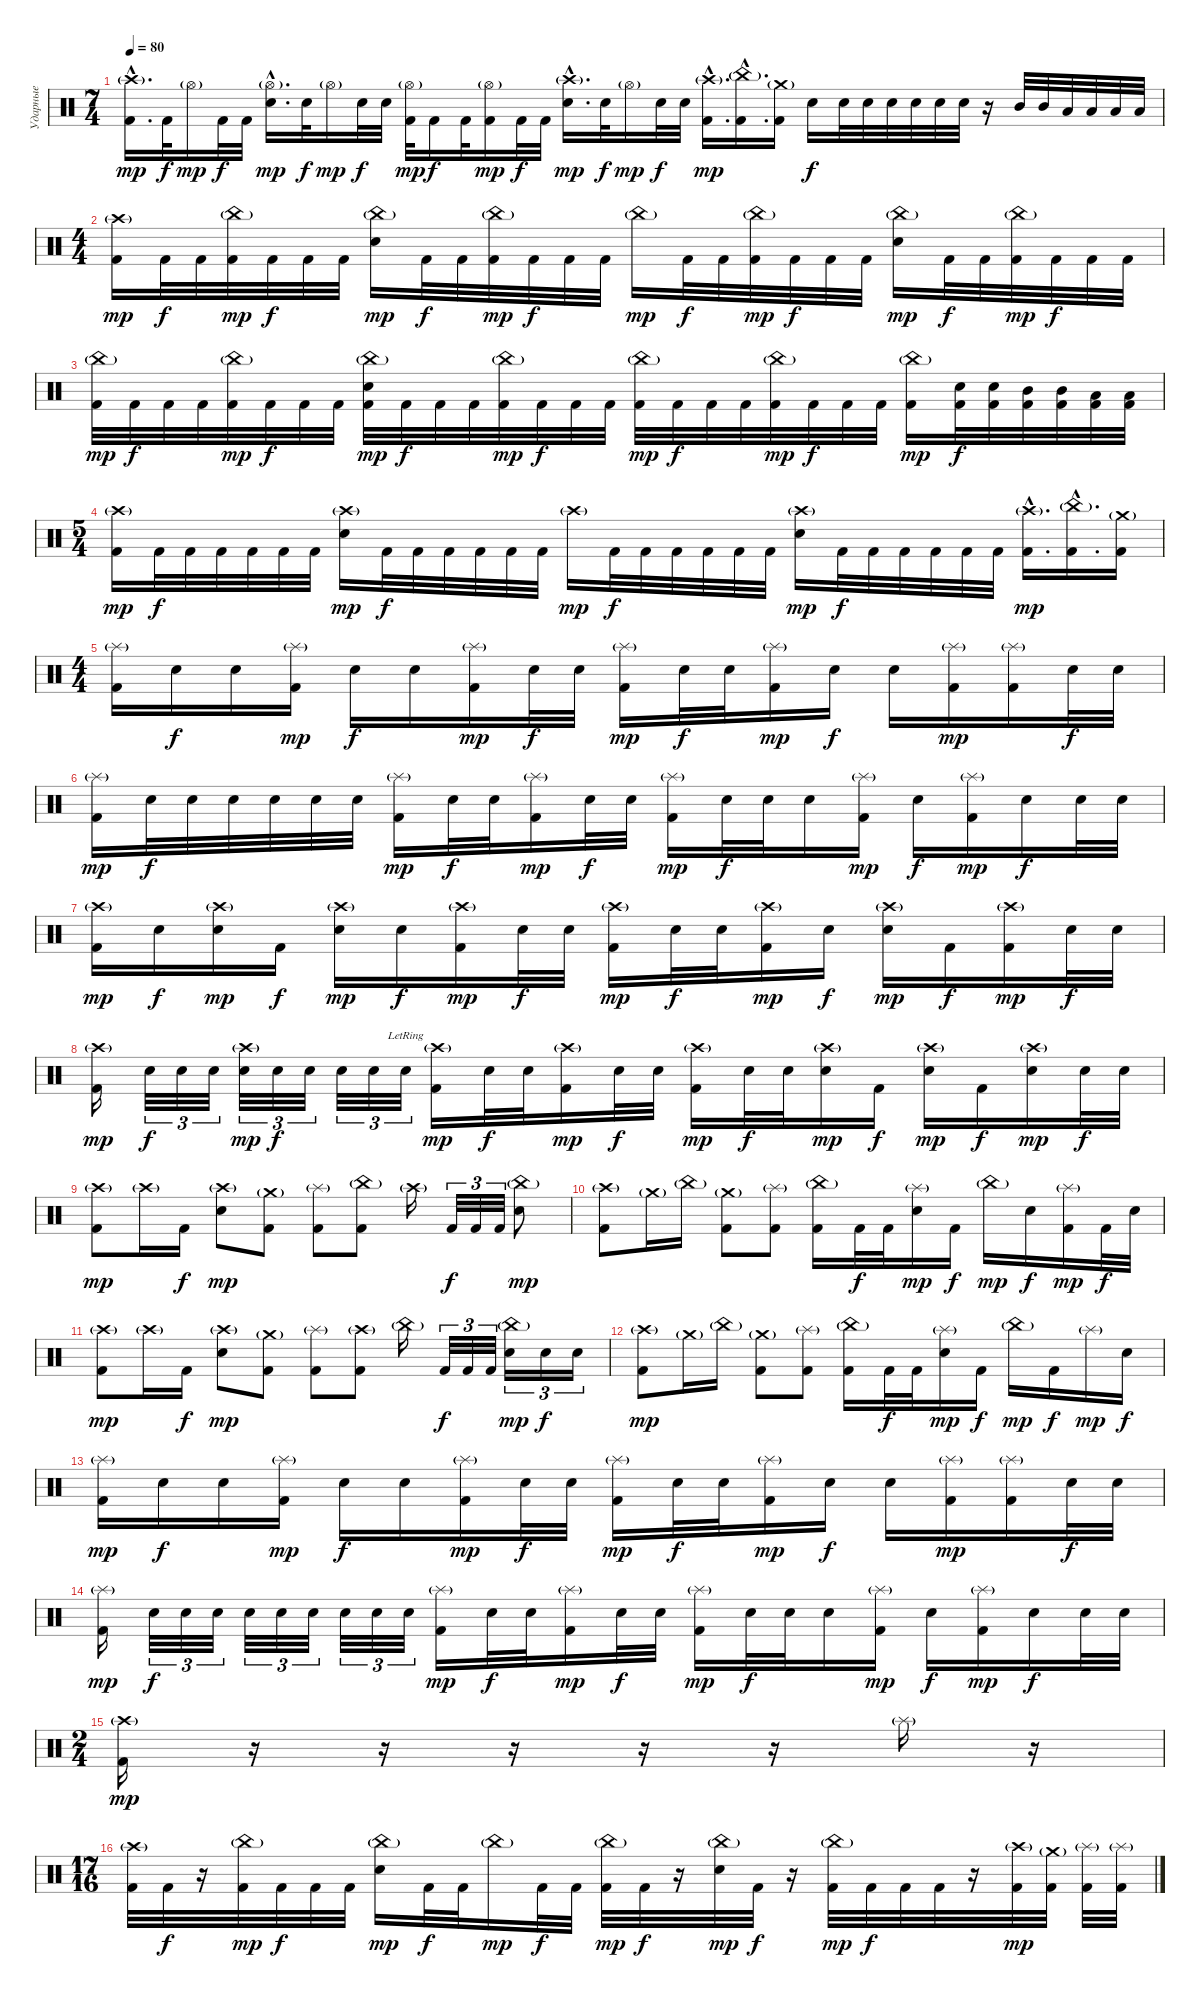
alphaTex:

\track ("Ударные" "Ударные") {instrument percussion}
\staff {score}
\articulation defaults
\ts (7 4)
\tempo 80
\clef neutral
\ks c
("Crash high (hit)"{g hac} "Kick (hit) 2"{hac}).16{d dy mp} "Kick (hit) 2".32{dy f} "Hi-Hat (open)"{g}.16{dy mp} "Kick (hit) 2".32{dy f} "Kick (hit) 2".32 ("Hi-Hat (open)"{g hac} "Electric Snare (hit)"{hac}).16{d dy mp} "Electric Snare (hit)".32{dy f} "Hi-Hat (open)"{g}.16{dy mp} "Electric Snare (hit)".32{dy f} "Electric Snare (hit)".32 ("Hi-Hat (open)"{g} "Kick (hit) 2").32{dy mp} "Kick (hit) 2".16{dy f} "Kick (hit) 2".32 ("Hi-Hat (open)"{g} "Kick (hit) 2").16{dy mp} "Kick (hit) 2".32{dy f} "Kick (hit) 2".32 ("Crash high (hit)"{g hac} "Electric Snare (hit)"{hac}).16{d dy mp} "Electric Snare (hit)".32{dy f} "Hi-Hat (open)"{g}.16{dy mp} "Electric Snare (hit)".32{dy f} "Electric Snare (hit)".32 ("Crash high (hit)"{g hac} "Kick (hit) 2"{hac}).16{d dy mp} ("China (hit)"{g hac} "Kick (hit) 2"{hac}).16{d} ("Crash medium (hit)"{g} "Kick (hit) 2").16 "Electric Snare (hit)".16{dy f} "Electric Snare (hit)".32 "Electric Snare (hit)".32 "Electric Snare (hit)".32 "Electric Snare (hit)".32 "Electric Snare (hit)".32 "Electric Snare (hit)".32 r.16 "Mid Tom (hit)".32 "Mid Tom (hit)".32 "Low Tom (hit)".32 "Low Tom (hit)".32 "Low Tom (hit)".32 "Low Tom (hit)".32 |
\ts (4 4)
("Crash high (hit)"{g} "Kick (hit) 2").16{dy mp} "Kick (hit) 2".32{dy f} "Kick (hit) 2".32 ("China (hit)"{g} "Kick (hit) 2").32{dy mp} "Kick (hit) 2".32{dy f} "Kick (hit) 2".32 "Kick (hit) 2".32 ("China (hit)"{g} "Electric Snare (hit)").16{dy mp} "Kick (hit) 2".32{dy f} "Kick (hit) 2".32 ("China (hit)"{g} "Kick (hit) 2").32{dy mp} "Kick (hit) 2".32{dy f} "Kick (hit) 2".32 "Kick (hit) 2".32 "China (hit)"{g}.16{dy mp} "Kick (hit) 2".32{dy f} "Kick (hit) 2".32 ("China (hit)"{g} "Kick (hit) 2").32{dy mp} "Kick (hit) 2".32{dy f} "Kick (hit) 2".32 "Kick (hit) 2".32 ("China (hit)"{g} "Electric Snare (hit)").16{dy mp} "Kick (hit) 2".32{dy f} "Kick (hit) 2".32 ("China (hit)"{g} "Kick (hit) 2").32{dy mp} "Kick (hit) 2".32{dy f} "Kick (hit) 2".32 "Kick (hit) 2".32 |
("China (hit)"{g} "Kick (hit) 2").32{dy mp} "Kick (hit) 2".32{dy f} "Kick (hit) 2".32 "Kick (hit) 2".32 ("China (hit)"{g} "Kick (hit) 2").32{dy mp} "Kick (hit) 2".32{dy f} "Kick (hit) 2".32 "Kick (hit) 2".32 ("China (hit)"{g} "Electric Snare (hit)" "Kick (hit) 2").32{dy mp} "Kick (hit) 2".32{dy f} "Kick (hit) 2".32 "Kick (hit) 2".32 ("China (hit)"{g} "Kick (hit) 2").32{dy mp} "Kick (hit) 2".32{dy f} "Kick (hit) 2".32 "Kick (hit) 2".32 ("China (hit)"{g} "Kick (hit) 2").32{dy mp} "Kick (hit) 2".32{dy f} "Kick (hit) 2".32 "Kick (hit) 2".32 ("China (hit)"{g} "Kick (hit) 2").32{dy mp} "Kick (hit) 2".32{dy f} "Kick (hit) 2".32 "Kick (hit) 2".32 ("China (hit)"{g} "Kick (hit) 2").16{dy mp} ("Electric Snare (hit)" "Kick (hit) 2").32{dy f} ("Electric Snare (hit)" "Kick (hit) 2").32 ("Mid Tom (hit)" "Kick (hit) 2").32 ("Mid Tom (hit)" "Kick (hit) 2").32 ("Low Tom (hit)" "Kick (hit) 2").32 ("Low Tom (hit)" "Kick (hit) 2").32 |
\ts (5 4)
("Crash high (hit)"{g} "Kick (hit) 2").16{dy mp} "Kick (hit) 2".32{dy f} "Kick (hit) 2".32 "Kick (hit) 2".32 "Kick (hit) 2".32 "Kick (hit) 2".32 "Kick (hit) 2".32 ("Crash high (hit)"{g} "Electric Snare (hit)").16{dy mp} "Kick (hit) 2".32{dy f} "Kick (hit) 2".32 "Kick (hit) 2".32 "Kick (hit) 2".32 "Kick (hit) 2".32 "Kick (hit) 2".32 "Crash high (hit)"{g}.16{dy mp} "Kick (hit) 2".32{dy f} "Kick (hit) 2".32 "Kick (hit) 2".32 "Kick (hit) 2".32 "Kick (hit) 2".32 "Kick (hit) 2".32 ("Crash high (hit)"{g} "Electric Snare (hit)").16{dy mp} "Kick (hit) 2".32{dy f} "Kick (hit) 2".32 "Kick (hit) 2".32 "Kick (hit) 2".32 "Kick (hit) 2".32 "Kick (hit) 2".32 ("Crash high (hit)"{g hac} "Kick (hit) 2"{hac}).16{d dy mp} ("China (hit)"{g hac} "Kick (hit) 2"{hac}).16{d} ("Crash medium (hit)"{g} "Kick (hit) 2").16 |
\ts (4 4)
("Splash (hit)"{g} "Kick (hit) 2").16 "Electric Snare (hit)".16{dy f} "Electric Snare (hit)".16 ("Splash (hit)"{g} "Kick (hit) 2").16{dy mp} "Electric Snare (hit)".16{dy f} "Electric Snare (hit)".16 ("Splash (hit)"{g} "Kick (hit) 2").16{dy mp} "Electric Snare (hit)".32{dy f} "Electric Snare (hit)".32 ("Splash (hit)"{g} "Kick (hit) 2").16{dy mp} "Electric Snare (hit)".32{dy f} "Electric Snare (hit)".32 ("Splash (hit)"{g} "Kick (hit) 2").16{dy mp} "Electric Snare (hit)".16{dy f} "Electric Snare (hit)".16 ("Splash (hit)"{g} "Kick (hit) 2").16{dy mp} ("Splash (hit)"{g} "Kick (hit) 2").16 "Electric Snare (hit)".32{dy f} "Electric Snare (hit)".32 |
("Splash (hit)"{g} "Kick (hit) 2").16{dy mp} "Electric Snare (hit)".32{dy f} "Electric Snare (hit)".32 "Electric Snare (hit)".32 "Electric Snare (hit)".32 "Electric Snare (hit)".32 "Electric Snare (hit)".32 ("Splash (hit)"{g} "Kick (hit) 2").16{dy mp} "Electric Snare (hit)".32{dy f} "Electric Snare (hit)".32 ("Splash (hit)"{g} "Kick (hit) 2").16{dy mp} "Electric Snare (hit)".32{dy f} "Electric Snare (hit)".32 ("Splash (hit)"{g} "Kick (hit) 2").16{dy mp} "Electric Snare (hit)".32{dy f} "Electric Snare (hit)".32 "Electric Snare (hit)".16 ("Splash (hit)"{g} "Kick (hit) 2").16{dy mp} "Electric Snare (hit)".16{dy f} ("Splash (hit)"{g} "Kick (hit) 2").16{dy mp} "Electric Snare (hit)".16{dy f} "Electric Snare (hit)".32 "Electric Snare (hit)".32 |
("Crash high (hit)"{g} "Kick (hit) 2").16{dy mp} "Electric Snare (hit)".16{dy f} ("Crash high (hit)"{g} "Electric Snare (hit)").16{dy mp} "Kick (hit) 2".16{dy f} ("Crash high (hit)"{g} "Electric Snare (hit)").16{dy mp} "Electric Snare (hit)".16{dy f} ("Crash high (hit)"{g} "Kick (hit) 2").16{dy mp} "Electric Snare (hit)".32{dy f} "Electric Snare (hit)".32 ("Crash high (hit)"{g} "Kick (hit) 2").16{dy mp} "Electric Snare (hit)".32{dy f} "Electric Snare (hit)".32 ("Crash high (hit)"{g} "Kick (hit) 2").16{dy mp} "Electric Snare (hit)".16{dy f} ("Crash high (hit)"{g} "Electric Snare (hit)").16{dy mp} "Kick (hit) 2".16{dy f} ("Crash high (hit)"{g} "Kick (hit) 2").16{dy mp} "Electric Snare (hit)".32{dy f} "Electric Snare (hit)".32 |
("Crash high (hit)"{g} "Kick (hit) 2").16{dy mp} "Electric Snare (hit)".32{tu (3 2) dy f} "Electric Snare (hit)".32{tu (3 2)} "Electric Snare (hit)".32{tu (3 2)} ("Crash high (hit)"{g} "Electric Snare (hit)").32{tu (3 2) dy mp} "Electric Snare (hit)".32{tu (3 2) dy f} "Electric Snare (hit)".32{tu (3 2)} "Electric Snare (hit)".32{tu (3 2)} "Electric Snare (hit)".32{tu (3 2)} "Electric Snare (hit)"{lr}.32{tu (3 2)} ("Crash high (hit)"{g} "Kick (hit) 2").16{dy mp} "Electric Snare (hit)".32{dy f} "Electric Snare (hit)".32 ("Crash high (hit)"{g} "Kick (hit) 2").16{dy mp} "Electric Snare (hit)".32{dy f} "Electric Snare (hit)".32 ("Crash high (hit)"{g} "Kick (hit) 2").16{dy mp} "Electric Snare (hit)".32{dy f} "Electric Snare (hit)".32 ("Crash high (hit)"{g} "Electric Snare (hit)").16{dy mp} "Kick (hit) 2".16{dy f} ("Crash high (hit)"{g} "Electric Snare (hit)").16{dy mp} "Kick (hit) 2".16{dy f} ("Crash high (hit)"{g} "Electric Snare (hit)").16{dy mp} "Electric Snare (hit)".32{dy f} "Electric Snare (hit)".32 |
("Crash high (hit)"{g} "Kick (hit) 2").8{dy mp} "Crash high (hit)"{g}.16 "Kick (hit) 2".16{dy f} ("Crash high (hit)"{g} "Electric Snare (hit)").8{dy mp} ("Crash medium (hit)"{g} "Kick (hit) 2").8 ("Splash (hit)"{g} "Kick (hit) 2").8 ("China (hit)"{g} "Kick (hit) 2").8 "Crash high (hit)"{g}.16 "Kick (hit) 2".32{tu (3 2) dy f} "Kick (hit) 2".32{tu (3 2)} "Kick (hit) 2".32{tu (3 2)} ("China (hit)"{g} "Electric Snare (hit)").8{dy mp} |
("Crash high (hit)"{g} "Kick (hit) 2").8 "Crash medium (hit)"{g}.16 "China (hit)"{g}.16 ("Crash medium (hit)"{g} "Kick (hit) 2").8 ("Splash (hit)"{g} "Kick (hit) 2").8 ("China (hit)"{g} "Kick (hit) 2").16 "Kick (hit) 2".32{dy f} "Kick (hit) 2".32 ("Splash (hit)"{g} "Electric Snare (hit)").16{dy mp} "Kick (hit) 2".16{dy f} "China (hit)"{g}.16{dy mp} "Electric Snare (hit)".16{dy f} ("Splash (hit)"{g} "Kick (hit) 2").16{dy mp} "Kick (hit) 2".32{dy f} "Electric Snare (hit)".32 |
("Crash high (hit)"{g} "Kick (hit) 2").8{dy mp} "Crash high (hit)"{g}.16 "Kick (hit) 2".16{dy f} ("Crash high (hit)"{g} "Electric Snare (hit)").8{dy mp} ("Crash medium (hit)"{g} "Kick (hit) 2").8 ("Splash (hit)"{g} "Kick (hit) 2").8 ("Crash high (hit)"{g} "Kick (hit) 2").8 "China (hit)"{g}.16 "Kick (hit) 2".32{tu (3 2) dy f} "Kick (hit) 2".32{tu (3 2)} "Kick (hit) 2".32{tu (3 2)} ("China (hit)"{g} "Electric Snare (hit)").16{tu (3 2) dy mp} "Electric Snare (hit)".16{tu (3 2) dy f} "Electric Snare (hit)".16{tu (3 2)} |
("Crash high (hit)"{g} "Kick (hit) 2").8{dy mp} "Crash medium (hit)"{g}.16 "China (hit)"{g}.16 ("Crash medium (hit)"{g} "Kick (hit) 2").8 ("Splash (hit)"{g} "Kick (hit) 2").8 ("China (hit)"{g} "Kick (hit) 2").16 "Kick (hit) 2".32{dy f} "Kick (hit) 2".32 ("Splash (hit)"{g} "Electric Snare (hit)").16{dy mp} "Kick (hit) 2".16{dy f} "China (hit)"{g}.16{dy mp} "Kick (hit) 2".16{dy f} "Splash (hit)"{g}.16{dy mp} "Electric Snare (hit)".16{dy f} |
("Splash (hit)"{g} "Kick (hit) 2").16{dy mp} "Electric Snare (hit)".16{dy f} "Electric Snare (hit)".16 ("Splash (hit)"{g} "Kick (hit) 2").16{dy mp} "Electric Snare (hit)".16{dy f} "Electric Snare (hit)".16 ("Splash (hit)"{g} "Kick (hit) 2").16{dy mp} "Electric Snare (hit)".32{dy f} "Electric Snare (hit)".32 ("Splash (hit)"{g} "Kick (hit) 2").16{dy mp} "Electric Snare (hit)".32{dy f} "Electric Snare (hit)".32 ("Splash (hit)"{g} "Kick (hit) 2").16{dy mp} "Electric Snare (hit)".16{dy f} "Electric Snare (hit)".16 ("Splash (hit)"{g} "Kick (hit) 2").16{dy mp} ("Splash (hit)"{g} "Kick (hit) 2").16 "Electric Snare (hit)".32{dy f} "Electric Snare (hit)".32 |
("Splash (hit)"{g} "Kick (hit) 2").16{dy mp} "Electric Snare (hit)".32{tu (3 2) dy f} "Electric Snare (hit)".32{tu (3 2)} "Electric Snare (hit)".32{tu (3 2)} "Electric Snare (hit)".32{tu (3 2)} "Electric Snare (hit)".32{tu (3 2)} "Electric Snare (hit)".32{tu (3 2)} "Electric Snare (hit)".32{tu (3 2)} "Electric Snare (hit)".32{tu (3 2)} "Electric Snare (hit)".32{tu (3 2)} ("Splash (hit)"{g} "Kick (hit) 2").16{dy mp} "Electric Snare (hit)".32{dy f} "Electric Snare (hit)".32 ("Splash (hit)"{g} "Kick (hit) 2").16{dy mp} "Electric Snare (hit)".32{dy f} "Electric Snare (hit)".32 ("Splash (hit)"{g} "Kick (hit) 2").16{dy mp} "Electric Snare (hit)".32{dy f} "Electric Snare (hit)".32 "Electric Snare (hit)".16 ("Splash (hit)"{g} "Kick (hit) 2").16{dy mp} "Electric Snare (hit)".16{dy f} ("Splash (hit)"{g} "Kick (hit) 2").16{dy mp} "Electric Snare (hit)".16{dy f} "Electric Snare (hit)".32 "Electric Snare (hit)".32 |
\ts (2 4)
("Crash high (hit)"{g} "Kick (hit) 2").16{dy mp} r.16{volume 0} r.16 r.16 r.16 r.16 "Splash (hit)"{g}.16{volume 16} r.16 |
\ts (17 16)
("Crash high (hit)"{g} "Kick (hit) 2").32 "Kick (hit) 2".32{dy f} r.16 ("China (hit)"{g} "Kick (hit) 2").32{dy mp} "Kick (hit) 2".32{dy f} "Kick (hit) 2".32 "Kick (hit) 2".32 ("China (hit)"{g} "Electric Snare (hit)").16{dy mp} "Kick (hit) 2".32{dy f} "Kick (hit) 2".32 "China (hit)"{g}.16{dy mp} "Kick (hit) 2".32{dy f} "Kick (hit) 2".32 ("China (hit)"{g} "Kick (hit) 2").32{dy mp} "Kick (hit) 2".32{dy f} r.16 ("China (hit)"{g} "Electric Snare (hit)").32{dy mp} "Kick (hit) 2".32{dy f} r.16 ("China (hit)"{g} "Kick (hit) 2").32{dy mp} "Kick (hit) 2".32{dy f} "Kick (hit) 2".32 "Kick (hit) 2".32 r.16 ("Crash high (hit)"{g} "Kick (hit) 2").32{dy mp} ("Crash medium (hit)"{g} "Kick (hit) 2").32 ("Splash (hit)"{g} "Kick (hit) 2").32 ("Splash (hit)"{g} "Kick (hit) 2").32
